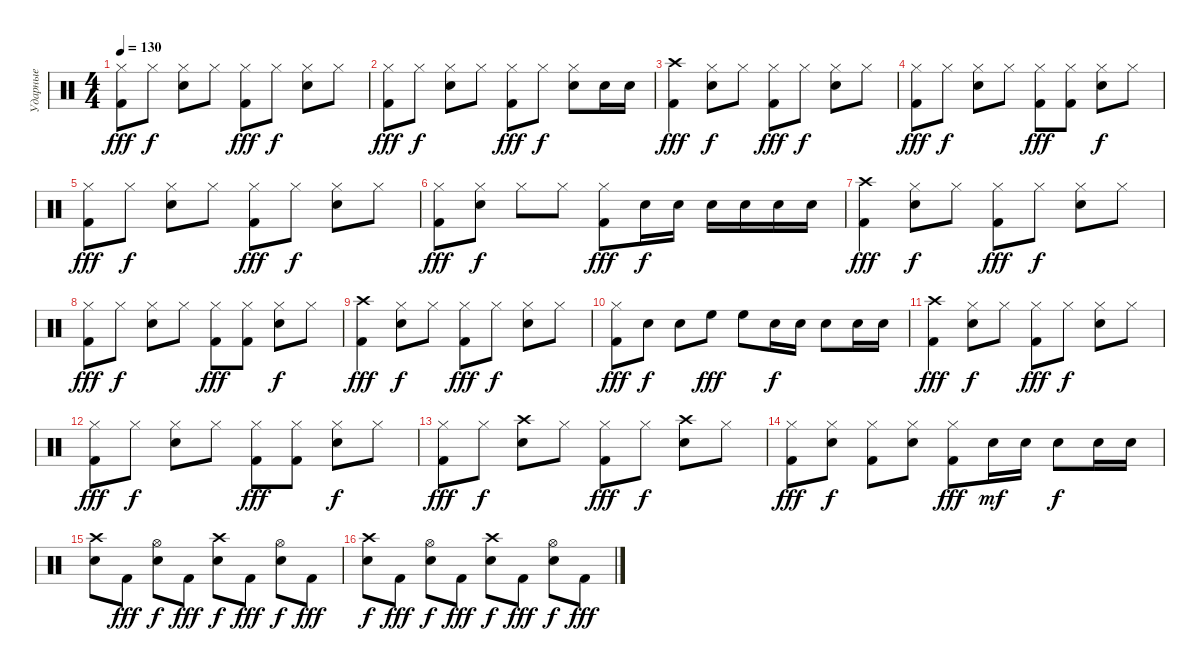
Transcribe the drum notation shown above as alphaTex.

\track ("Ударные" "Ударные") {instrument percussion}
\staff {score}
\articulation defaults
\ts (4 4)
\tempo 130
\clef neutral
\ks c
("Kick (hit) 2" "Hi-Hat (closed)").8{dy fff} "Hi-Hat (closed)".8{dy f} ("Snare (hit) 2" "Hi-Hat (closed)").8 "Hi-Hat (closed)".8 ("Kick (hit) 2" "Hi-Hat (closed)").8{dy fff} "Hi-Hat (closed)".8{dy f} ("Snare (hit) 2" "Hi-Hat (closed)").8 "Hi-Hat (closed)".8 |
("Kick (hit) 2" "Hi-Hat (closed)").8{dy fff} "Hi-Hat (closed)".8{dy f} ("Snare (hit) 2" "Hi-Hat (closed)").8 "Hi-Hat (closed)".8 ("Kick (hit) 2" "Hi-Hat (closed)").8{dy fff} "Hi-Hat (closed)".8{dy f} ("Snare (hit) 2" "Hi-Hat (closed)").8 "Snare (hit) 2".16 "Snare (hit) 2".16 |
("Kick (hit) 2" "Crash high (hit)").4{dy fff} ("Snare (hit) 2" "Hi-Hat (closed)").8{dy f} "Hi-Hat (closed)".8 ("Kick (hit) 2" "Hi-Hat (closed)").8{dy fff} "Hi-Hat (closed)".8{dy f} ("Snare (hit) 2" "Hi-Hat (closed)").8 "Hi-Hat (closed)".8 |
("Kick (hit) 2" "Hi-Hat (closed)").8{dy fff} "Hi-Hat (closed)".8{dy f} ("Snare (hit) 2" "Hi-Hat (closed)").8 "Hi-Hat (closed)".8 ("Kick (hit) 2" "Hi-Hat (closed)").8{dy fff} ("Kick (hit) 2" "Hi-Hat (closed)").8 ("Snare (hit) 2" "Hi-Hat (closed)").8{dy f} "Hi-Hat (closed)".8 |
("Kick (hit) 2" "Hi-Hat (closed)").8{dy fff} "Hi-Hat (closed)".8{dy f} ("Snare (hit) 2" "Hi-Hat (closed)").8 "Hi-Hat (closed)".8 ("Kick (hit) 2" "Hi-Hat (closed)").8{dy fff} "Hi-Hat (closed)".8{dy f} ("Snare (hit) 2" "Hi-Hat (closed)").8 "Hi-Hat (closed)".8 |
("Kick (hit) 2" "Hi-Hat (closed)").8{dy fff} ("Snare (hit) 2" "Hi-Hat (closed)").8{dy f} "Hi-Hat (closed)".8 "Hi-Hat (closed)".8 ("Kick (hit) 2" "Hi-Hat (closed)").8{dy fff} "Snare (hit) 2".16{dy f} "Snare (hit) 2".16 "Snare (hit) 2".16 "Snare (hit) 2".16 "Snare (hit) 2".16 "Snare (hit) 2".16 |
("Kick (hit) 2" "Crash high (hit)").4{dy fff} ("Snare (hit) 2" "Hi-Hat (closed)").8{dy f} "Hi-Hat (closed)".8 ("Kick (hit) 2" "Hi-Hat (closed)").8{dy fff} "Hi-Hat (closed)".8{dy f} ("Snare (hit) 2" "Hi-Hat (closed)").8 "Hi-Hat (closed)".8 |
("Kick (hit) 2" "Hi-Hat (closed)").8{dy fff} "Hi-Hat (closed)".8{dy f} ("Snare (hit) 2" "Hi-Hat (closed)").8 "Hi-Hat (closed)".8 ("Kick (hit) 2" "Hi-Hat (closed)").8{dy fff} ("Kick (hit) 2" "Hi-Hat (closed)").8 ("Snare (hit) 2" "Hi-Hat (closed)").8{dy f} "Hi-Hat (closed)".8 |
("Kick (hit) 2" "Crash high (hit)").4{dy fff} ("Snare (hit) 2" "Hi-Hat (closed)").8{dy f} "Hi-Hat (closed)".8 ("Kick (hit) 2" "Hi-Hat (closed)").8{dy fff} "Hi-Hat (closed)".8{dy f} ("Snare (hit) 2" "Hi-Hat (closed)").8 "Hi-Hat (closed)".8 |
("Kick (hit) 2" "Hi-Hat (closed)").8{dy fff} "Snare (hit) 2".8{dy f} "Snare (hit) 2".8 "High Floor Tom (hit)".8{dy fff} "High Floor Tom (hit)".8 "Snare (hit) 2".16{dy f} "Snare (hit) 2".16 "Snare (hit) 2".8 "Snare (hit) 2".16 "Snare (hit) 2".16 |
("Kick (hit) 2" "Crash high (hit)").4{dy fff} ("Snare (hit) 2" "Hi-Hat (closed)").8{dy f} "Hi-Hat (closed)".8 ("Kick (hit) 2" "Hi-Hat (closed)").8{dy fff} "Hi-Hat (closed)".8{dy f} ("Snare (hit) 2" "Hi-Hat (closed)").8 "Hi-Hat (closed)".8 |
("Kick (hit) 2" "Hi-Hat (closed)").8{dy fff} "Hi-Hat (closed)".8{dy f} ("Snare (hit) 2" "Hi-Hat (closed)").8 "Hi-Hat (closed)".8 ("Kick (hit) 2" "Hi-Hat (closed)").8{dy fff} ("Kick (hit) 2" "Hi-Hat (closed)").8 ("Snare (hit) 2" "Hi-Hat (closed)").8{dy f} "Hi-Hat (closed)".8 |
("Kick (hit) 2" "Hi-Hat (closed)").8{dy fff} "Hi-Hat (closed)".8{dy f} ("Snare (hit) 2" "Crash high (hit)").8 "Hi-Hat (closed)".8 ("Kick (hit) 2" "Hi-Hat (closed)").8{dy fff} "Hi-Hat (closed)".8{dy f} ("Snare (hit) 2" "Crash high (hit)").8 "Hi-Hat (closed)".8 |
("Kick (hit) 2" "Hi-Hat (closed)").8{dy fff} ("Snare (hit) 2" "Hi-Hat (closed)").8{dy f} ("Kick (hit) 2" "Hi-Hat (closed)").8 ("Snare (hit) 2" "Hi-Hat (closed)").8 ("Kick (hit) 2" "Hi-Hat (closed)").8{dy fff} "Snare (hit) 2".16{dy mf} "Snare (hit) 2".16 "Snare (hit) 2".8{dy f} "Snare (hit) 2".16 "Snare (hit) 2".16 |
("Snare (hit) 2" "Crash high (hit)").8 "Kick (hit) 2".8{dy fff} ("Snare (hit) 2" "Hi-Hat (open)").8{dy f} "Kick (hit) 2".8{dy fff} ("Snare (hit) 2" "Crash high (hit)").8{dy f} "Kick (hit) 2".8{dy fff} ("Snare (hit) 2" "Hi-Hat (open)").8{dy f} "Kick (hit) 2".8{dy fff} |
("Snare (hit) 2" "Crash high (hit)").8{dy f} "Kick (hit) 2".8{dy fff} ("Snare (hit) 2" "Hi-Hat (open)").8{dy f} "Kick (hit) 2".8{dy fff} ("Snare (hit) 2" "Crash high (hit)").8{dy f} "Kick (hit) 2".8{dy fff} ("Snare (hit) 2" "Hi-Hat (open)").8{dy f} "Kick (hit) 2".8{dy fff}
